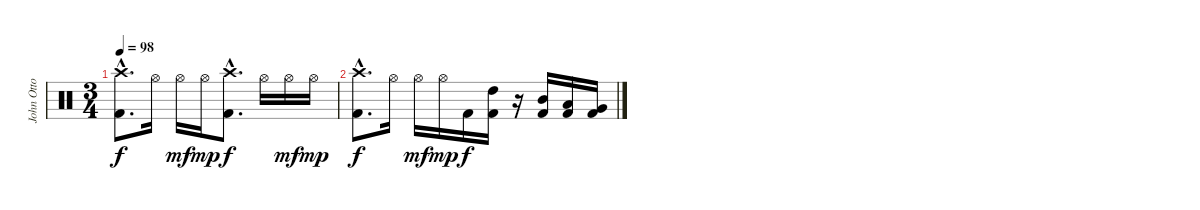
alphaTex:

\track ("John Otto - Drums" "John Otto ") {instrument percussion}
\staff {score}
\articulation defaults
\ts (3 4)
\tempo 98
\clef neutral
\ks c
("Crash high (hit)"{hac} "Kick (hit) 2"{hac}).8{d dy f} "Hi-Hat (open)".16 "Hi-Hat (open)".16{dy mf} "Hi-Hat (open)".16{dy mp} ("Crash high (hit)"{hac} "Kick (hit) 2"{hac}).8{d dy f} "Hi-Hat (open)".16 "Hi-Hat (open)".16{dy mf} "Hi-Hat (open)".16{dy mp} |
("Crash high (hit)"{hac} "Kick (hit) 2"{hac}).8{d dy f} "Hi-Hat (open)".16 "Hi-Hat (open)".16{dy mf} "Hi-Hat (open)".16{dy mp} "Kick (hit) 2".16{dy f} ("High Tom (hit)" "Kick (hit) 2").16 r.16 ("Mid Tom (hit)" "Kick (hit) 2").16 ("Low Tom (hit)" "Kick (hit) 2").16 ("Very Low Tom (hit)" "Kick (hit) 2").16
